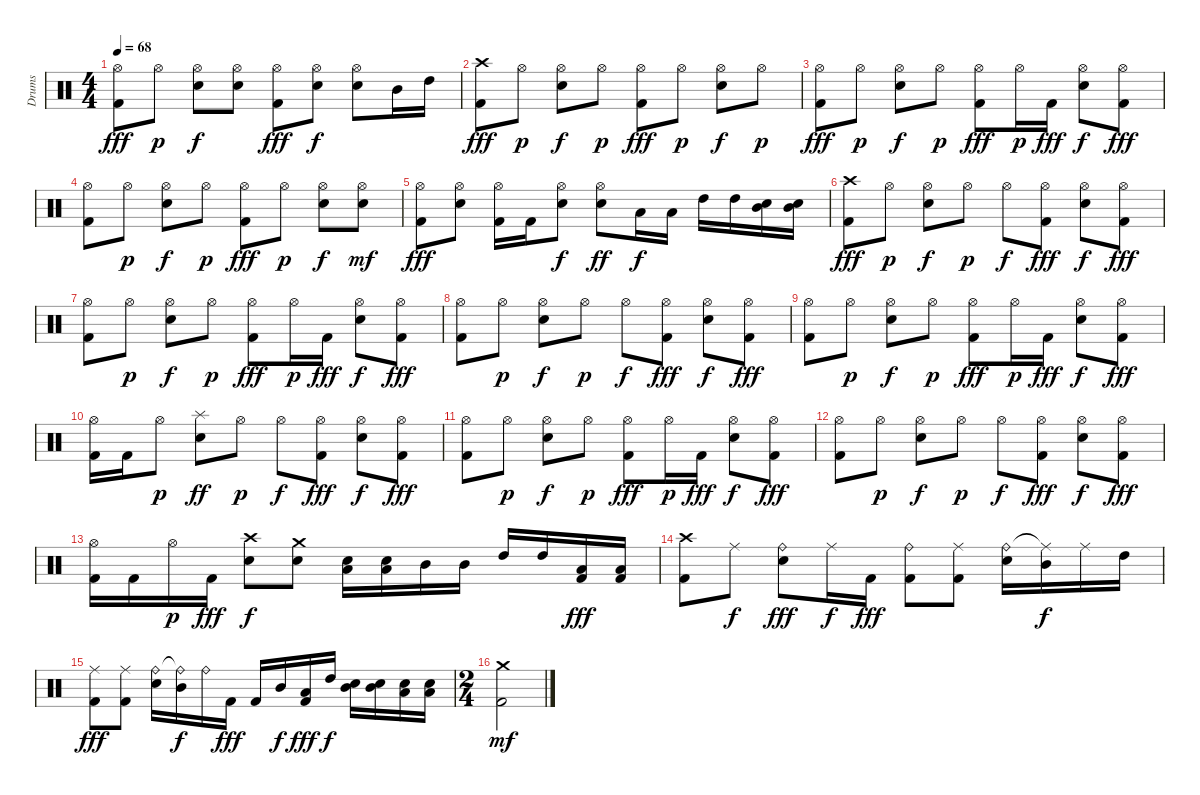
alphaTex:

\track ("Drums" "Drums") {instrument percussion}
\staff {score}
\articulation defaults
\ts (4 4)
\tempo 68
\clef neutral
\ks c
("Hi-Hat (open)" "Kick (hit) 2").8{dy fff} "Hi-Hat (open)".8{dy p} ("Hi-Hat (open)" "Snare (hit) 2").8{dy f} ("Hi-Hat (open)" "Snare (hit) 2").8 ("Hi-Hat (open)" "Kick (hit) 2").8{dy fff} ("Hi-Hat (open)" "Snare (hit) 2").8{dy f} ("Hi-Hat (open)" "Snare (hit) 2").8 "Mid Tom (hit)".16 "High Tom (hit)".16 |
("Kick (hit) 2" "Crash high (hit)").8{dy fff} "Hi-Hat (open)".8{dy p} ("Hi-Hat (open)" "Snare (hit) 2").8{dy f} "Hi-Hat (open)".8{dy p} ("Hi-Hat (open)" "Kick (hit) 2").8{dy fff} "Hi-Hat (open)".8{dy p} ("Hi-Hat (open)" "Snare (hit) 2").8{dy f} "Hi-Hat (open)".8{dy p} |
("Hi-Hat (open)" "Kick (hit) 2").8{dy fff} "Hi-Hat (open)".8{dy p} ("Hi-Hat (open)" "Snare (hit) 2").8{dy f} "Hi-Hat (open)".8{dy p} ("Hi-Hat (open)" "Kick (hit) 2").8{dy fff} "Hi-Hat (open)".16{dy p} "Kick (hit) 2".16{dy fff} ("Hi-Hat (open)" "Snare (hit) 2").8{dy f} ("Hi-Hat (open)" "Kick (hit) 2").8{dy fff} |
("Hi-Hat (open)" "Kick (hit) 2").8 "Hi-Hat (open)".8{dy p} ("Hi-Hat (open)" "Snare (hit) 2").8{dy f} "Hi-Hat (open)".8{dy p} ("Hi-Hat (open)" "Kick (hit) 2").8{dy fff} "Hi-Hat (open)".8{dy p} ("Hi-Hat (open)" "Snare (hit) 2").8{dy f} ("Hi-Hat (open)" "Snare (hit) 2").8{dy mf} |
("Hi-Hat (open)" "Kick (hit) 2").8{dy fff} ("Hi-Hat (open)" "Snare (hit) 2").8 ("Hi-Hat (open)" "Kick (hit) 2").16 "Kick (hit) 2".16 ("Hi-Hat (open)" "Snare (hit) 2").8{dy f} ("Hi-Hat (open)" "Snare (hit) 2").8{dy ff} "Low Tom (hit)".16{dy f} "Low Tom (hit)".16 "High Tom (hit)".16 "High Tom (hit)".16 ("Snare (hit) 2" "Mid Tom (hit)").16 ("Snare (hit) 2" "Mid Tom (hit)").16 |
("Kick (hit) 2" "Crash high (hit)").8{dy fff} "Hi-Hat (open)".8{dy p} ("Hi-Hat (open)" "Snare (hit) 2").8{dy f} "Hi-Hat (open)".8{dy p} "Hi-Hat (open)".8{dy f} ("Hi-Hat (open)" "Kick (hit) 2").8{dy fff} ("Hi-Hat (open)" "Snare (hit) 2").8{dy f} ("Hi-Hat (open)" "Kick (hit) 2").8{dy fff} |
("Hi-Hat (open)" "Kick (hit) 2").8 "Hi-Hat (open)".8{dy p} ("Hi-Hat (open)" "Snare (hit) 2").8{dy f} "Hi-Hat (open)".8{dy p} ("Hi-Hat (open)" "Kick (hit) 2").8{dy fff} "Hi-Hat (open)".16{dy p} "Kick (hit) 2".16{dy fff} ("Hi-Hat (open)" "Snare (hit) 2").8{dy f} ("Hi-Hat (open)" "Kick (hit) 2").8{dy fff} |
("Hi-Hat (open)" "Kick (hit) 2").8 "Hi-Hat (open)".8{dy p} ("Hi-Hat (open)" "Snare (hit) 2").8{dy f} "Hi-Hat (open)".8{dy p} "Hi-Hat (open)".8{dy f} ("Hi-Hat (open)" "Kick (hit) 2").8{dy fff} ("Hi-Hat (open)" "Snare (hit) 2").8{dy f} ("Hi-Hat (open)" "Kick (hit) 2").8{dy fff} |
("Hi-Hat (open)" "Kick (hit) 2").8 "Hi-Hat (open)".8{dy p} ("Hi-Hat (open)" "Snare (hit) 2").8{dy f} "Hi-Hat (open)".8{dy p} ("Hi-Hat (open)" "Kick (hit) 2").8{dy fff} "Hi-Hat (open)".16{dy p} "Kick (hit) 2".16{dy fff} ("Hi-Hat (open)" "Snare (hit) 2").8{dy f} ("Hi-Hat (open)" "Kick (hit) 2").8{dy fff} |
("Hi-Hat (open)" "Kick (hit) 2").16 "Kick (hit) 2".16 "Hi-Hat (open)".8{dy p} ("Snare (hit) 2" "Splash (hit)").8{dy ff} "Hi-Hat (open)".8{dy p} "Hi-Hat (open)".8{dy f} ("Hi-Hat (open)" "Kick (hit) 2").8{dy fff} ("Hi-Hat (open)" "Snare (hit) 2").8{dy f} ("Hi-Hat (open)" "Kick (hit) 2").8{dy fff} |
("Hi-Hat (open)" "Kick (hit) 2").8 "Hi-Hat (open)".8{dy p} ("Hi-Hat (open)" "Snare (hit) 2").8{dy f} "Hi-Hat (open)".8{dy p} ("Hi-Hat (open)" "Kick (hit) 2").8{dy fff} "Hi-Hat (open)".16{dy p} "Kick (hit) 2".16{dy fff} ("Hi-Hat (open)" "Snare (hit) 2").8{dy f} ("Hi-Hat (open)" "Kick (hit) 2").8{dy fff} |
("Hi-Hat (open)" "Kick (hit) 2").8 "Hi-Hat (open)".8{dy p} ("Hi-Hat (open)" "Snare (hit) 2").8{dy f} "Hi-Hat (open)".8{dy p} "Hi-Hat (open)".8{dy f} ("Hi-Hat (open)" "Kick (hit) 2").8{dy fff} ("Hi-Hat (open)" "Snare (hit) 2").8{dy f} ("Hi-Hat (open)" "Kick (hit) 2").8{dy fff} |
("Hi-Hat (open)" "Kick (hit) 2").16 "Kick (hit) 2".16 "Hi-Hat (open)".16{dy p} "Kick (hit) 2".16{dy fff} ("Snare (hit) 2" "Crash high (hit)").8{dy f} ("Snare (hit) 2" "Crash medium (hit)").8 ("Snare (hit) 2" "Low Tom (hit)").16 ("Snare (hit) 2" "Low Tom (hit)").16 "Mid Tom (hit)".16 "Mid Tom (hit)".16 "High Tom (hit)".16 "High Tom (hit)".16 ("Kick (hit) 2" "Low Tom (hit)").16{dy fff} ("Kick (hit) 2" "Low Tom (hit)").16 |
("Kick (hit) 2" "Crash high (hit)").8 "Ride (middle)".8{dy f} ("Ride (bell)" "Snare (hit) 2").8{dy fff} "Ride (middle)".16{dy f} "Kick (hit) 2".16{dy fff} ("Ride (bell)" "Kick (hit) 2").8 ("Ride (middle)" "Kick (hit) 2").8 ("Ride (bell)" "Snare (hit) 2").16 ("Ride (middle)"{t} "Mid Tom (hit)").16{dy f} "Ride (middle)".16 "High Tom (hit)".16 |
("Ride (middle)" "Kick (hit) 2").8{dy fff} ("Ride (middle)" "Kick (hit) 2").8 ("Ride (bell)" "Snare (hit) 2").16 ("Ride (bell)"{t} "Mid Tom (hit)").16{dy f} "Ride (bell)".16 "Kick (hit) 2".16{dy fff} "Kick (hit) 2".16 "Mid Tom (hit)".16{dy f} ("Kick (hit) 2" "Low Tom (hit)").16{dy fff} "High Tom (hit)".16{dy f} ("Snare (hit) 2" "Mid Tom (hit)").16 ("Snare (hit) 2" "Mid Tom (hit)").16 ("Snare (hit) 2" "Low Tom (hit)").16 ("Snare (hit) 2" "Low Tom (hit)").16 |
\ts (2 4)
("Kick (hit) 2" "Crash medium (hit)").2{dy mf}
